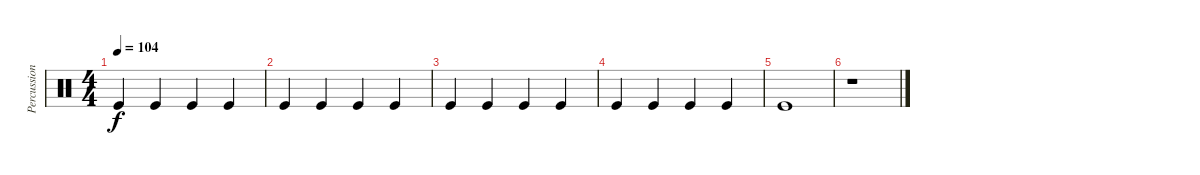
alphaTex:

\track ("Percussioni" "Percussion") {instrument percussion}
\staff {score}
\articulation defaults
\ts (4 4)
\tempo 104
\clef neutral
\ks c "Kick (hit)".4{dy f} "Kick (hit)".4 "Kick (hit)".4 "Kick (hit)".4
|
"Kick (hit)".4 "Kick (hit)".4 "Kick (hit)".4 "Kick (hit)".4 |
"Kick (hit)".4 "Kick (hit)".4 "Kick (hit)".4 "Kick (hit)".4 |
"Kick (hit)".4 "Kick (hit)".4 "Kick (hit)".4 "Kick (hit)".4 |
"Kick (hit)".1 |
r.1
